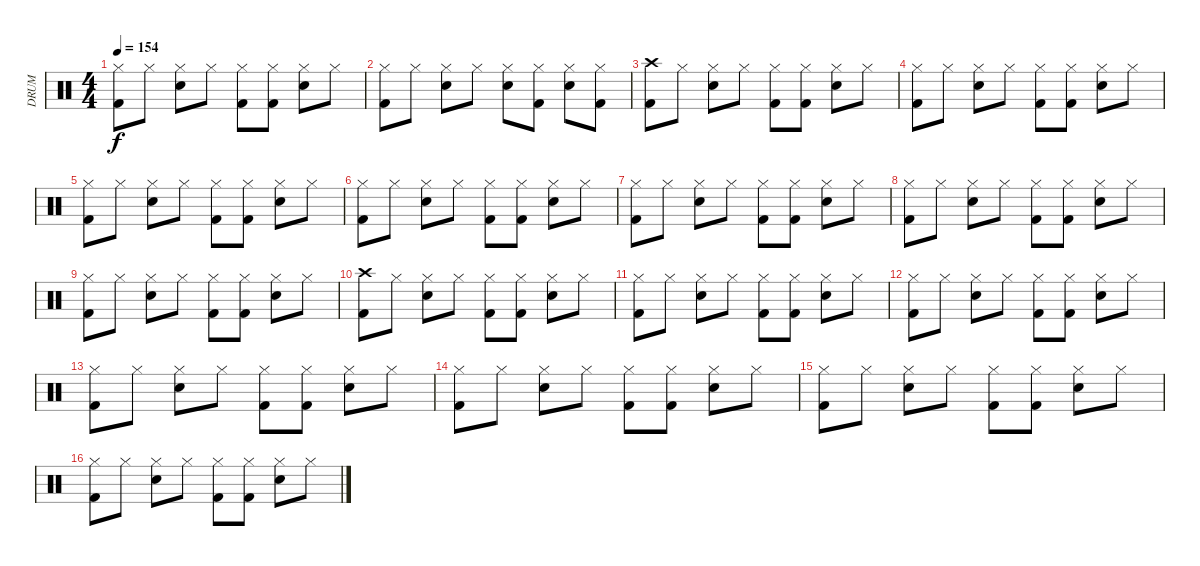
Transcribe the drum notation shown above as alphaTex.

\track ("DRUM" "DRUM") {instrument percussion}
\staff {score}
\articulation defaults
\ts (4 4)
\tempo 154
\clef neutral
\ks c
("Hi-Hat (closed)" "Kick (hit) 2").8{dy f} "Hi-Hat (closed)".8 ("Hi-Hat (closed)" "Snare (hit) 2").8 "Hi-Hat (closed)".8 ("Hi-Hat (closed)" "Kick (hit) 2").8 ("Hi-Hat (closed)" "Kick (hit) 2").8 ("Hi-Hat (closed)" "Snare (hit) 2").8 "Hi-Hat (closed)".8 |
("Hi-Hat (closed)" "Kick (hit) 2").8 "Hi-Hat (closed)".8 ("Hi-Hat (closed)" "Snare (hit) 2").8 "Hi-Hat (closed)".8 ("Hi-Hat (closed)" "Snare (hit) 2").8 ("Hi-Hat (closed)" "Kick (hit) 2").8 ("Hi-Hat (closed)" "Snare (hit) 2").8 ("Hi-Hat (closed)" "Kick (hit) 2").8 |
("Crash high (hit)" "Kick (hit) 2").8 "Hi-Hat (closed)".8 ("Hi-Hat (closed)" "Snare (hit) 2").8 "Hi-Hat (closed)".8 ("Hi-Hat (closed)" "Kick (hit) 2").8 ("Hi-Hat (closed)" "Kick (hit) 2").8 ("Hi-Hat (closed)" "Snare (hit) 2").8 "Hi-Hat (closed)".8 |
("Hi-Hat (closed)" "Kick (hit) 2").8 "Hi-Hat (closed)".8 ("Hi-Hat (closed)" "Snare (hit) 2").8 "Hi-Hat (closed)".8 ("Hi-Hat (closed)" "Kick (hit) 2").8 ("Hi-Hat (closed)" "Kick (hit) 2").8 ("Hi-Hat (closed)" "Snare (hit) 2").8 "Hi-Hat (closed)".8 |
("Hi-Hat (closed)" "Kick (hit) 2").8 "Hi-Hat (closed)".8 ("Hi-Hat (closed)" "Snare (hit) 2").8 "Hi-Hat (closed)".8 ("Hi-Hat (closed)" "Kick (hit) 2").8 ("Hi-Hat (closed)" "Kick (hit) 2").8 ("Hi-Hat (closed)" "Snare (hit) 2").8 "Hi-Hat (closed)".8 |
("Hi-Hat (closed)" "Kick (hit) 2").8 "Hi-Hat (closed)".8 ("Hi-Hat (closed)" "Snare (hit) 2").8 "Hi-Hat (closed)".8 ("Hi-Hat (closed)" "Kick (hit) 2").8 ("Hi-Hat (closed)" "Kick (hit) 2").8 ("Hi-Hat (closed)" "Snare (hit) 2").8 "Hi-Hat (closed)".8 |
("Hi-Hat (closed)" "Kick (hit) 2").8 "Hi-Hat (closed)".8 ("Hi-Hat (closed)" "Snare (hit) 2").8 "Hi-Hat (closed)".8 ("Hi-Hat (closed)" "Kick (hit) 2").8 ("Hi-Hat (closed)" "Kick (hit) 2").8 ("Hi-Hat (closed)" "Snare (hit) 2").8 "Hi-Hat (closed)".8 |
("Hi-Hat (closed)" "Kick (hit) 2").8 "Hi-Hat (closed)".8 ("Hi-Hat (closed)" "Snare (hit) 2").8 "Hi-Hat (closed)".8 ("Hi-Hat (closed)" "Kick (hit) 2").8 ("Hi-Hat (closed)" "Kick (hit) 2").8 ("Hi-Hat (closed)" "Snare (hit) 2").8 "Hi-Hat (closed)".8 |
("Hi-Hat (closed)" "Kick (hit) 2").8 "Hi-Hat (closed)".8 ("Hi-Hat (closed)" "Snare (hit) 2").8 "Hi-Hat (closed)".8 ("Hi-Hat (closed)" "Kick (hit) 2").8 ("Hi-Hat (closed)" "Kick (hit) 2").8 ("Hi-Hat (closed)" "Snare (hit) 2").8 "Hi-Hat (closed)".8 |
("Crash high (hit)" "Kick (hit) 2").8 "Hi-Hat (closed)".8 ("Hi-Hat (closed)" "Snare (hit) 2").8 "Hi-Hat (closed)".8 ("Hi-Hat (closed)" "Kick (hit) 2").8 ("Hi-Hat (closed)" "Kick (hit) 2").8 ("Hi-Hat (closed)" "Snare (hit) 2").8 "Hi-Hat (closed)".8 |
("Hi-Hat (closed)" "Kick (hit) 2").8 "Hi-Hat (closed)".8 ("Hi-Hat (closed)" "Snare (hit) 2").8 "Hi-Hat (closed)".8 ("Hi-Hat (closed)" "Kick (hit) 2").8 ("Hi-Hat (closed)" "Kick (hit) 2").8 ("Hi-Hat (closed)" "Snare (hit) 2").8 "Hi-Hat (closed)".8 |
("Hi-Hat (closed)" "Kick (hit) 2").8 "Hi-Hat (closed)".8 ("Hi-Hat (closed)" "Snare (hit) 2").8 "Hi-Hat (closed)".8 ("Hi-Hat (closed)" "Kick (hit) 2").8 ("Hi-Hat (closed)" "Kick (hit) 2").8 ("Hi-Hat (closed)" "Snare (hit) 2").8 "Hi-Hat (closed)".8 |
("Hi-Hat (closed)" "Kick (hit) 2").8 "Hi-Hat (closed)".8 ("Hi-Hat (closed)" "Snare (hit) 2").8 "Hi-Hat (closed)".8 ("Hi-Hat (closed)" "Kick (hit) 2").8 ("Hi-Hat (closed)" "Kick (hit) 2").8 ("Hi-Hat (closed)" "Snare (hit) 2").8 "Hi-Hat (closed)".8 |
("Hi-Hat (closed)" "Kick (hit) 2").8 "Hi-Hat (closed)".8 ("Hi-Hat (closed)" "Snare (hit) 2").8 "Hi-Hat (closed)".8 ("Hi-Hat (closed)" "Kick (hit) 2").8 ("Hi-Hat (closed)" "Kick (hit) 2").8 ("Hi-Hat (closed)" "Snare (hit) 2").8 "Hi-Hat (closed)".8 |
("Hi-Hat (closed)" "Kick (hit) 2").8 "Hi-Hat (closed)".8 ("Hi-Hat (closed)" "Snare (hit) 2").8 "Hi-Hat (closed)".8 ("Hi-Hat (closed)" "Kick (hit) 2").8 ("Hi-Hat (closed)" "Kick (hit) 2").8 ("Hi-Hat (closed)" "Snare (hit) 2").8 "Hi-Hat (closed)".8 |
("Hi-Hat (closed)" "Kick (hit) 2").8 "Hi-Hat (closed)".8 ("Hi-Hat (closed)" "Snare (hit) 2").8 "Hi-Hat (closed)".8 ("Hi-Hat (closed)" "Kick (hit) 2").8 ("Hi-Hat (closed)" "Kick (hit) 2").8 ("Hi-Hat (closed)" "Snare (hit) 2").8 "Hi-Hat (closed)".8
